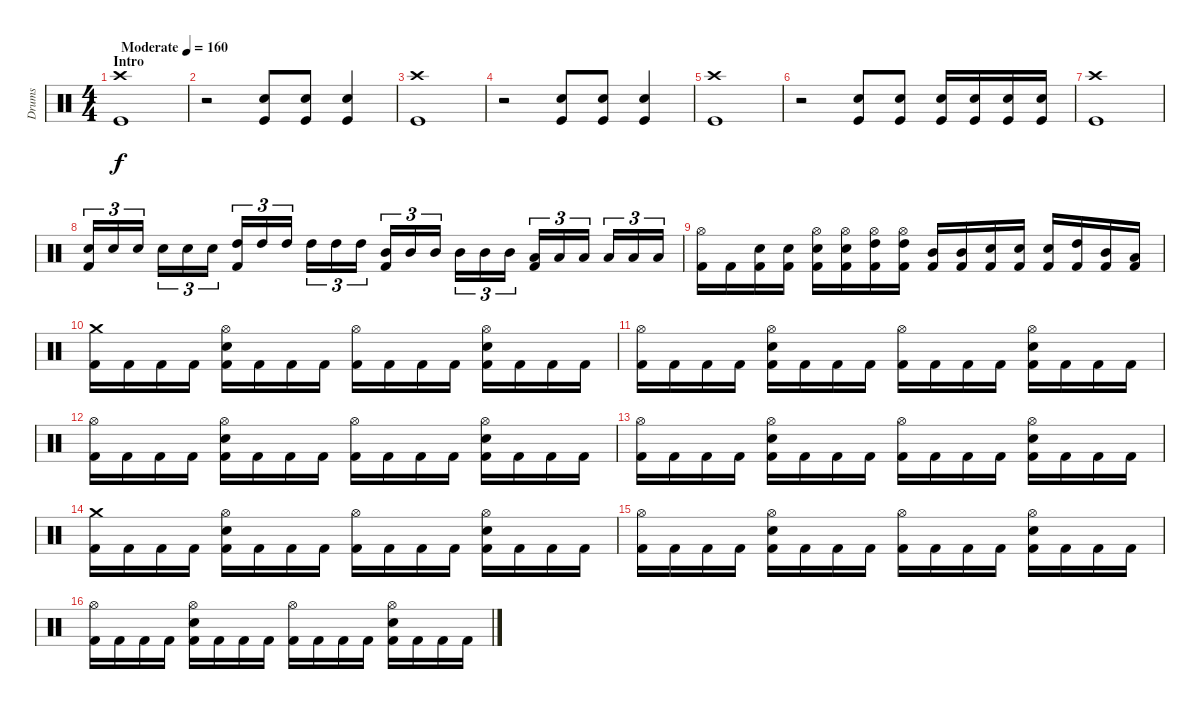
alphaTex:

\track ("Drums" "Drums") {instrument percussion}
\staff {score}
\articulation defaults
\ts (4 4)
\section ("" "Intro ")
\tempo (160 "Moderate")
\clef neutral
\ks c
("Crash high (hit)" "Kick (hit)").1{dy f} |
r.2 ("Electric Snare (hit)" "Kick (hit)").8 ("Electric Snare (hit)" "Kick (hit)").8 ("Electric Snare (hit)" "Kick (hit)").4 |
("Crash high (hit)" "Kick (hit)").1 |
r.2 ("Electric Snare (hit)" "Kick (hit)").8 ("Electric Snare (hit)" "Kick (hit)").8 ("Electric Snare (hit)" "Kick (hit)").4 |
("Crash high (hit)" "Kick (hit)").1 |
r.2 ("Electric Snare (hit)" "Kick (hit)").8 ("Electric Snare (hit)" "Kick (hit)").8 ("Electric Snare (hit)" "Kick (hit)").16 ("Electric Snare (hit)" "Kick (hit)").16 ("Electric Snare (hit)" "Kick (hit)").16 ("Electric Snare (hit)" "Kick (hit)").16 |
("Crash high (hit)" "Kick (hit)").1 |
("Electric Snare (hit)" "Kick (hit) 2").16{tu (3 2)} "Electric Snare (hit)".16{tu (3 2)} "Electric Snare (hit)".16{tu (3 2) beam splitsecondary} "Electric Snare (hit)".16{tu (3 2)} "Electric Snare (hit)".16{tu (3 2)} "Electric Snare (hit)".16{tu (3 2)} ("High Tom (hit)" "Kick (hit) 2").16{tu (3 2)} "High Tom (hit)".16{tu (3 2)} "High Tom (hit)".16{tu (3 2) beam splitsecondary} "High Tom (hit)".16{tu (3 2)} "High Tom (hit)".16{tu (3 2)} "High Tom (hit)".16{tu (3 2)} ("Mid Tom (hit)" "Kick (hit) 2").16{tu (3 2)} "Mid Tom (hit)".16{tu (3 2)} "Mid Tom (hit)".16{tu (3 2) beam splitsecondary} "Mid Tom (hit)".16{tu (3 2)} "Mid Tom (hit)".16{tu (3 2)} "Mid Tom (hit)".16{tu (3 2)} ("Low Tom (hit)" "Kick (hit) 2").16{tu (3 2)} "Low Tom (hit)".16{tu (3 2)} "Low Tom (hit)".16{tu (3 2) beam splitsecondary} "Low Tom (hit)".16{tu (3 2)} "Low Tom (hit)".16{tu (3 2)} "Low Tom (hit)".16{tu (3 2)} |
("Kick (hit) 2" "Hi-Hat (open)").16 "Kick (hit) 2".16 ("Kick (hit) 2" "Electric Snare (hit)").16 ("Kick (hit) 2" "Electric Snare (hit)").16 ("Kick (hit) 2" "Electric Snare (hit)" "Hi-Hat (open)").16 ("Kick (hit) 2" "Electric Snare (hit)" "Hi-Hat (open)").16 ("Kick (hit) 2" "High Tom (hit)" "Hi-Hat (open)").16 ("Kick (hit) 2" "High Tom (hit)" "Hi-Hat (open)").16 ("Kick (hit) 2" "Mid Tom (hit)").16 ("Kick (hit) 2" "Mid Tom (hit)").16 ("Kick (hit) 2" "Electric Snare (hit)").16 ("Kick (hit) 2" "Electric Snare (hit)").16 ("Kick (hit) 2" "Electric Snare (hit)").16 ("Kick (hit) 2" "High Tom (hit)").16 ("Kick (hit) 2" "Mid Tom (hit)").16 ("Kick (hit) 2" "Low Tom (hit)").16 |
("Kick (hit) 2" "Crash medium (hit)").16 "Kick (hit) 2".16 "Kick (hit) 2".16 "Kick (hit) 2".16 ("Kick (hit) 2" "Electric Snare (hit)" "Hi-Hat (open)").16 "Kick (hit) 2".16 "Kick (hit) 2".16 "Kick (hit) 2".16 ("Kick (hit) 2" "Hi-Hat (open)").16 "Kick (hit) 2".16 "Kick (hit) 2".16 "Kick (hit) 2".16 ("Kick (hit) 2" "Electric Snare (hit)" "Hi-Hat (open)").16 "Kick (hit) 2".16 "Kick (hit) 2".16 "Kick (hit) 2".16 |
("Kick (hit) 2" "Hi-Hat (open)").16 "Kick (hit) 2".16 "Kick (hit) 2".16 "Kick (hit) 2".16 ("Kick (hit) 2" "Electric Snare (hit)" "Hi-Hat (open)").16 "Kick (hit) 2".16 "Kick (hit) 2".16 "Kick (hit) 2".16 ("Kick (hit) 2" "Hi-Hat (open)").16 "Kick (hit) 2".16 "Kick (hit) 2".16 "Kick (hit) 2".16 ("Kick (hit) 2" "Electric Snare (hit)" "Hi-Hat (open)").16 "Kick (hit) 2".16 "Kick (hit) 2".16 "Kick (hit) 2".16 |
("Kick (hit) 2" "Hi-Hat (open)").16 "Kick (hit) 2".16 "Kick (hit) 2".16 "Kick (hit) 2".16 ("Kick (hit) 2" "Electric Snare (hit)" "Hi-Hat (open)").16 "Kick (hit) 2".16 "Kick (hit) 2".16 "Kick (hit) 2".16 ("Kick (hit) 2" "Hi-Hat (open)").16 "Kick (hit) 2".16 "Kick (hit) 2".16 "Kick (hit) 2".16 ("Kick (hit) 2" "Electric Snare (hit)" "Hi-Hat (open)").16 "Kick (hit) 2".16 "Kick (hit) 2".16 "Kick (hit) 2".16 |
("Kick (hit) 2" "Hi-Hat (open)").16 "Kick (hit) 2".16 "Kick (hit) 2".16 "Kick (hit) 2".16 ("Kick (hit) 2" "Electric Snare (hit)" "Hi-Hat (open)").16 "Kick (hit) 2".16 "Kick (hit) 2".16 "Kick (hit) 2".16 ("Kick (hit) 2" "Hi-Hat (open)").16 "Kick (hit) 2".16 "Kick (hit) 2".16 "Kick (hit) 2".16 ("Kick (hit) 2" "Electric Snare (hit)" "Hi-Hat (open)").16 "Kick (hit) 2".16 "Kick (hit) 2".16 "Kick (hit) 2".16 |
("Kick (hit) 2" "Crash medium (hit)").16 "Kick (hit) 2".16 "Kick (hit) 2".16 "Kick (hit) 2".16 ("Kick (hit) 2" "Electric Snare (hit)" "Hi-Hat (open)").16 "Kick (hit) 2".16 "Kick (hit) 2".16 "Kick (hit) 2".16 ("Kick (hit) 2" "Hi-Hat (open)").16 "Kick (hit) 2".16 "Kick (hit) 2".16 "Kick (hit) 2".16 ("Kick (hit) 2" "Electric Snare (hit)" "Hi-Hat (open)").16 "Kick (hit) 2".16 "Kick (hit) 2".16 "Kick (hit) 2".16 |
("Kick (hit) 2" "Hi-Hat (open)").16 "Kick (hit) 2".16 "Kick (hit) 2".16 "Kick (hit) 2".16 ("Kick (hit) 2" "Electric Snare (hit)" "Hi-Hat (open)").16 "Kick (hit) 2".16 "Kick (hit) 2".16 "Kick (hit) 2".16 ("Kick (hit) 2" "Hi-Hat (open)").16 "Kick (hit) 2".16 "Kick (hit) 2".16 "Kick (hit) 2".16 ("Kick (hit) 2" "Electric Snare (hit)" "Hi-Hat (open)").16 "Kick (hit) 2".16 "Kick (hit) 2".16 "Kick (hit) 2".16 |
("Kick (hit) 2" "Hi-Hat (open)").16 "Kick (hit) 2".16 "Kick (hit) 2".16 "Kick (hit) 2".16 ("Kick (hit) 2" "Electric Snare (hit)" "Hi-Hat (open)").16 "Kick (hit) 2".16 "Kick (hit) 2".16 "Kick (hit) 2".16 ("Kick (hit) 2" "Hi-Hat (open)").16 "Kick (hit) 2".16 "Kick (hit) 2".16 "Kick (hit) 2".16 ("Kick (hit) 2" "Electric Snare (hit)" "Hi-Hat (open)").16 "Kick (hit) 2".16 "Kick (hit) 2".16 "Kick (hit) 2".16
